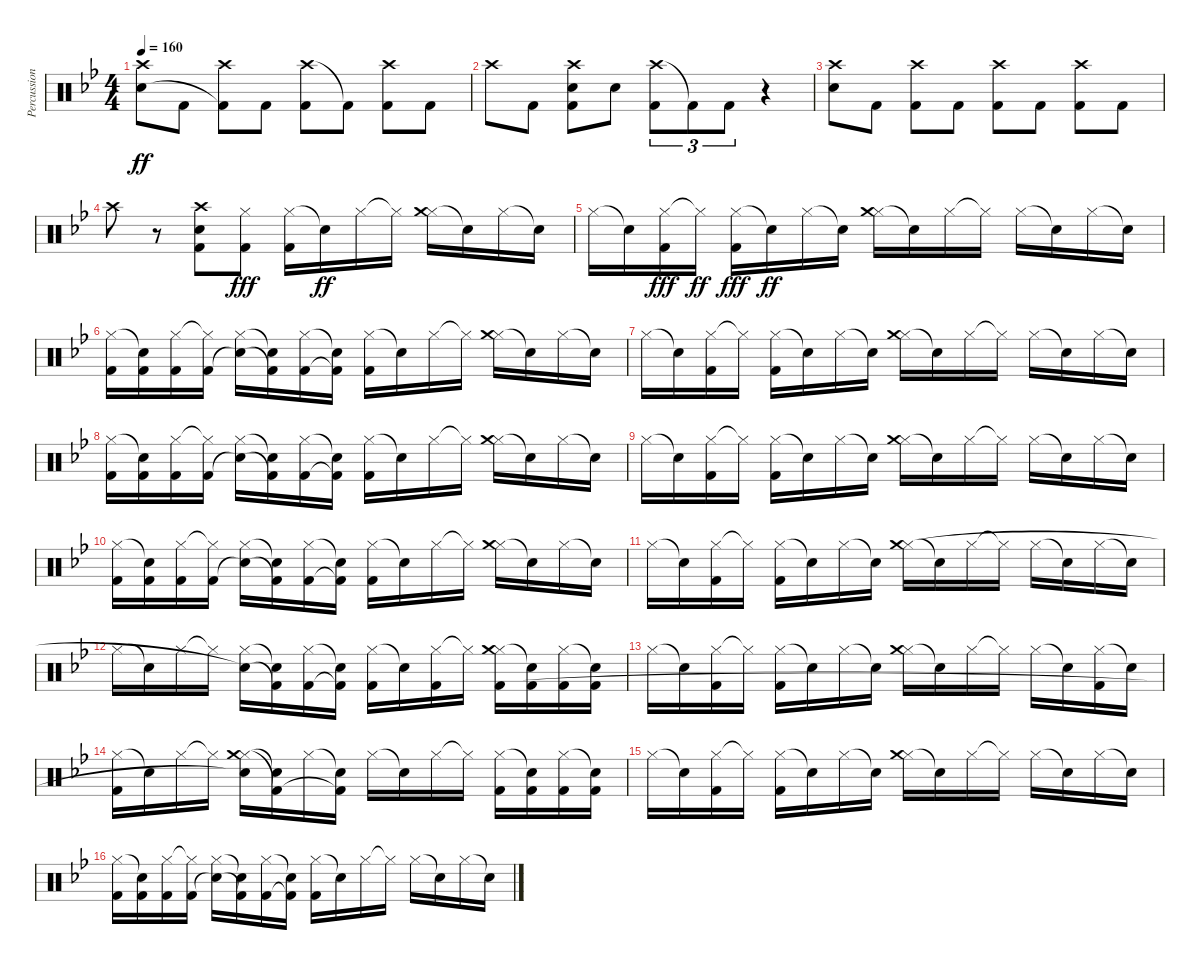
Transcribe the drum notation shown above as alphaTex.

\track ("Percussion" "Percussion") {instrument percussion}
\staff {score}
\articulation defaults
\ts (4 4)
\tempo 160
\clef neutral
\ks bb
("Crash high (hit)" "Electric Snare (hit)").8{dy ff} "Kick (hit) 2".8 ("Crash high (hit)" "Kick (hit) 2"{t}).8 "Kick (hit) 2".8 ("Crash high (hit)" "Kick (hit) 2").8 "Kick (hit) 2"{t}.8 ("Crash high (hit)" "Kick (hit) 2").8 "Kick (hit) 2".8 |
"Crash high (hit)".8 "Kick (hit) 2".8 ("Electric Snare (hit)" "Crash high (hit)" "Kick (hit) 2").8 "Electric Snare (hit)".8 ("Crash high (hit)" "Kick (hit) 2").8{tu (3 2)} "Kick (hit) 2"{t}.8{tu (3 2)} "Kick (hit) 2".8{tu (3 2)} r.4 |
("Crash high (hit)" "Electric Snare (hit)").8 "Kick (hit) 2".8 ("Crash high (hit)" "Kick (hit) 2").8 "Kick (hit) 2".8 ("Crash high (hit)" "Kick (hit) 2").8 "Kick (hit) 2".8 ("Crash high (hit)" "Kick (hit) 2").8 "Kick (hit) 2".8 |
"Crash high (hit)".8 r.8 ("Electric Snare (hit)" "Crash high (hit)" "Kick (hit) 2").8 ("Hi-Hat (closed)" "Kick (hit) 2").8{dy fff} ("Hi-Hat (closed)" "Kick (hit) 2").16 "Snare (hit)"{t}.16{dy ff} "Hi-Hat (closed)".16 "Hi-Hat (closed)"{t}.16 ("Hi-Hat (closed)" "Crash medium (hit)").16 "Snare (hit)"{t}.16 "Hi-Hat (closed)".16 "Snare (hit)"{t}.16 |
"Hi-Hat (closed)".16 "Snare (hit)"{t}.16 ("Hi-Hat (closed)" "Kick (hit) 2").16{dy fff} "Hi-Hat (closed)"{t}.16{dy ff} ("Hi-Hat (closed)" "Kick (hit) 2").16{dy fff} "Snare (hit)"{t}.16{dy ff} "Hi-Hat (closed)".16 "Snare (hit)"{t}.16 ("Hi-Hat (closed)" "Crash medium (hit)").16 "Snare (hit)"{t}.16 "Hi-Hat (closed)".16 "Hi-Hat (closed)"{t}.16 "Hi-Hat (closed)".16 "Snare (hit)"{t}.16 "Hi-Hat (closed)".16 "Snare (hit)"{t}.16 |
("Hi-Hat (closed)" "Kick (hit) 2").16 ("Snare (hit)"{t} "Kick (hit) 2").16 ("Hi-Hat (closed)" "Kick (hit) 2").16 ("Hi-Hat (closed)"{t} "Kick (hit) 2").16 ("Hi-Hat (closed)" "Snare (hit)"{t}).16 ("Snare (hit)"{t} "Kick (hit) 2"{t}).16 ("Hi-Hat (closed)" "Kick (hit) 2").16 ("Snare (hit)"{t} "Kick (hit) 2"{t}).16 ("Hi-Hat (closed)" "Kick (hit) 2").16 "Snare (hit)"{t}.16 "Hi-Hat (closed)".16 "Hi-Hat (closed)"{t}.16 ("Hi-Hat (closed)" "Crash medium (hit)").16 "Snare (hit)"{t}.16 "Hi-Hat (closed)".16 "Snare (hit)"{t}.16 |
"Hi-Hat (closed)".16 "Snare (hit)"{t}.16 ("Hi-Hat (closed)" "Kick (hit) 2").16 "Hi-Hat (closed)"{t}.16 ("Hi-Hat (closed)" "Kick (hit) 2").16 "Snare (hit)"{t}.16 "Hi-Hat (closed)".16 "Snare (hit)"{t}.16 ("Hi-Hat (closed)" "Crash medium (hit)").16 "Snare (hit)"{t}.16 "Hi-Hat (closed)".16 "Hi-Hat (closed)"{t}.16 "Hi-Hat (closed)".16 "Snare (hit)"{t}.16 "Hi-Hat (closed)".16 "Snare (hit)"{t}.16 |
("Hi-Hat (closed)" "Kick (hit) 2").16 ("Snare (hit)"{t} "Kick (hit) 2").16 ("Hi-Hat (closed)" "Kick (hit) 2").16 ("Hi-Hat (closed)"{t} "Kick (hit) 2").16 ("Hi-Hat (closed)" "Snare (hit)"{t}).16 ("Snare (hit)"{t} "Kick (hit) 2"{t}).16 ("Hi-Hat (closed)" "Kick (hit) 2").16 ("Snare (hit)"{t} "Kick (hit) 2"{t}).16 ("Hi-Hat (closed)" "Kick (hit) 2").16 "Snare (hit)"{t}.16 "Hi-Hat (closed)".16 "Hi-Hat (closed)"{t}.16 ("Hi-Hat (closed)" "Crash medium (hit)").16 "Snare (hit)"{t}.16 "Hi-Hat (closed)".16 "Snare (hit)"{t}.16 |
"Hi-Hat (closed)".16 "Snare (hit)"{t}.16 ("Hi-Hat (closed)" "Kick (hit) 2").16 "Hi-Hat (closed)"{t}.16 ("Hi-Hat (closed)" "Kick (hit) 2").16 "Snare (hit)"{t}.16 "Hi-Hat (closed)".16 "Snare (hit)"{t}.16 ("Hi-Hat (closed)" "Crash medium (hit)").16 "Snare (hit)"{t}.16 "Hi-Hat (closed)".16 "Hi-Hat (closed)"{t}.16 "Hi-Hat (closed)".16 "Snare (hit)"{t}.16 "Hi-Hat (closed)".16 "Snare (hit)"{t}.16 |
("Hi-Hat (closed)" "Kick (hit) 2").16 ("Snare (hit)"{t} "Kick (hit) 2").16 ("Hi-Hat (closed)" "Kick (hit) 2").16 ("Hi-Hat (closed)"{t} "Kick (hit) 2").16 ("Hi-Hat (closed)" "Snare (hit)"{t}).16 ("Snare (hit)"{t} "Kick (hit) 2"{t}).16 ("Hi-Hat (closed)" "Kick (hit) 2").16 ("Snare (hit)"{t} "Kick (hit) 2"{t}).16 ("Hi-Hat (closed)" "Kick (hit) 2").16 "Snare (hit)"{t}.16 "Hi-Hat (closed)".16 "Hi-Hat (closed)"{t}.16 ("Hi-Hat (closed)" "Crash medium (hit)").16 "Snare (hit)"{t}.16 "Hi-Hat (closed)".16 "Snare (hit)"{t}.16 |
"Hi-Hat (closed)".16 "Snare (hit)"{t}.16 ("Hi-Hat (closed)" "Kick (hit) 2").16 "Hi-Hat (closed)"{t}.16 ("Hi-Hat (closed)" "Kick (hit) 2").16 "Snare (hit)"{t}.16 "Hi-Hat (closed)".16 "Snare (hit)"{t}.16 ("Hi-Hat (closed)" "Crash medium (hit)").16 "Snare (hit)"{t}.16 "Hi-Hat (closed)".16 "Hi-Hat (closed)"{t}.16 "Hi-Hat (closed)".16 "Snare (hit)"{t}.16 "Hi-Hat (closed)".16 "Snare (hit)"{t}.16 |
"Hi-Hat (closed)".16 "Snare (hit)"{t}.16 "Hi-Hat (closed)".16 "Hi-Hat (closed)"{t}.16 ("Hi-Hat (closed)" "Snare (hit)"{t}).16 ("Snare (hit)"{t} "Kick (hit) 2"{t}).16 ("Hi-Hat (closed)" "Kick (hit) 2").16 ("Snare (hit)"{t} "Kick (hit) 2"{t}).16 ("Hi-Hat (closed)" "Kick (hit) 2").16 "Snare (hit)"{t}.16 ("Hi-Hat (closed)" "Kick (hit) 2").16 "Hi-Hat (closed)"{t}.16 ("Hi-Hat (closed)" "Crash medium (hit)" "Kick (hit) 2").16 ("Snare (hit)"{t} "Kick (hit) 2").16 ("Hi-Hat (closed)" "Kick (hit) 2").16 ("Snare (hit)"{t} "Kick (hit) 2").16 |
"Hi-Hat (closed)".16 "Snare (hit)"{t}.16 ("Hi-Hat (closed)" "Kick (hit) 2").16 "Hi-Hat (closed)"{t}.16 ("Hi-Hat (closed)" "Kick (hit) 2").16 "Snare (hit)"{t}.16 "Hi-Hat (closed)".16 "Snare (hit)"{t}.16 ("Hi-Hat (closed)" "Crash medium (hit)").16 "Snare (hit)"{t}.16 "Hi-Hat (closed)".16 "Hi-Hat (closed)"{t}.16 "Hi-Hat (closed)".16 "Snare (hit)"{t}.16 ("Hi-Hat (closed)" "Kick (hit) 2").16 "Snare (hit)"{t}.16 |
("Hi-Hat (closed)" "Kick (hit) 2").16 "Snare (hit)"{t}.16 "Hi-Hat (closed)".16 "Hi-Hat (closed)"{t}.16 ("Hi-Hat (closed)" "Crash medium (hit)" "Snare (hit)"{t}).16 ("Snare (hit)"{t} "Kick (hit) 2"{t}).16 "Hi-Hat (closed)".16 ("Snare (hit)"{t} "Kick (hit) 2"{t}).16 "Hi-Hat (closed)".16 "Snare (hit)"{t}.16 "Hi-Hat (closed)".16 "Hi-Hat (closed)"{t}.16 ("Hi-Hat (closed)" "Kick (hit) 2").16 ("Snare (hit)"{t} "Kick (hit) 2").16 ("Hi-Hat (closed)" "Kick (hit) 2").16 ("Snare (hit)"{t} "Kick (hit) 2").16 |
"Hi-Hat (closed)".16 "Snare (hit)"{t}.16 ("Hi-Hat (closed)" "Kick (hit) 2").16 "Hi-Hat (closed)"{t}.16 ("Hi-Hat (closed)" "Kick (hit) 2").16 "Snare (hit)"{t}.16 "Hi-Hat (closed)".16 "Snare (hit)"{t}.16 ("Hi-Hat (closed)" "Crash medium (hit)").16 "Snare (hit)"{t}.16 "Hi-Hat (closed)".16 "Hi-Hat (closed)"{t}.16 "Hi-Hat (closed)".16 "Snare (hit)"{t}.16 "Hi-Hat (closed)".16 "Snare (hit)"{t}.16 |
("Hi-Hat (closed)" "Kick (hit) 2").16 ("Snare (hit)"{t} "Kick (hit) 2").16 ("Hi-Hat (closed)" "Kick (hit) 2").16 ("Hi-Hat (closed)"{t} "Kick (hit) 2").16 ("Hi-Hat (closed)" "Snare (hit)"{t}).16 ("Snare (hit)"{t} "Kick (hit) 2"{t}).16 ("Hi-Hat (closed)" "Kick (hit) 2").16 ("Snare (hit)"{t} "Kick (hit) 2"{t}).16 ("Hi-Hat (closed)" "Kick (hit) 2").16 "Snare (hit)"{t}.16 "Hi-Hat (closed)".16 "Hi-Hat (closed)"{t}.16 "Hi-Hat (closed)".16 "Snare (hit)"{t}.16 "Hi-Hat (closed)".16 "Snare (hit)"{t}.16
